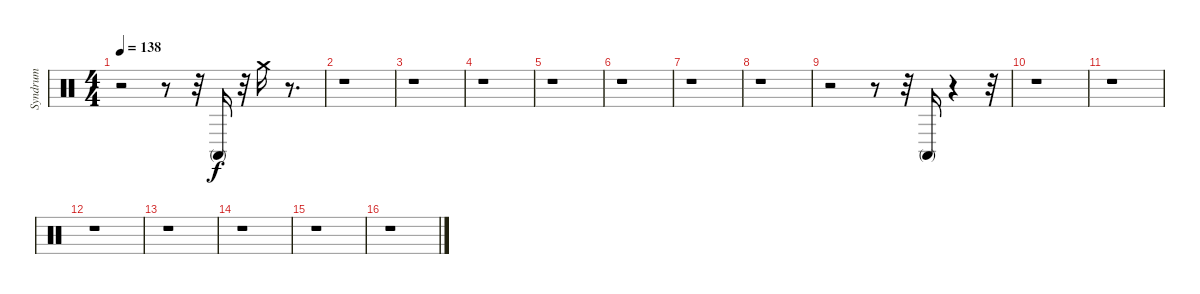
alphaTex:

\track ("Syndrum" "Syndrum") {instrument percussion}
\staff {score}
\articulation defaults
\ts (4 4)
\tempo 138
\clef neutral
\ks c
r.2{dy f} r.8 r.32 "Conga high (mute)".16 r.32 "Crash medium (hit)".16 r.8{d} |
r.1 |
r.1 |
r.1 |
r.1 |
r.1 |
r.1 |
r.1 |
r.2 r.8 r.32 "Conga high (mute)".16 r.4 r.32 |
r.1 |
r.1 |
r.1 |
r.1 |
r.1 |
r.1 |
r.1
